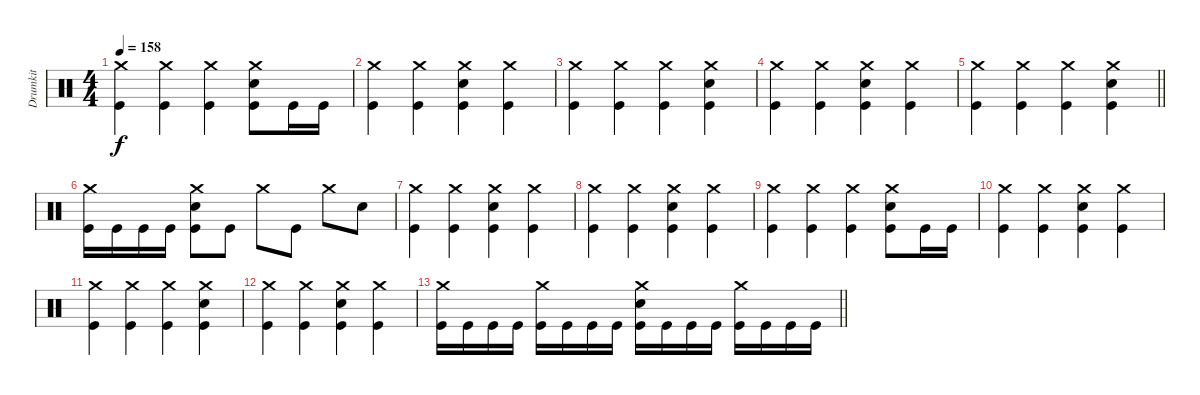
\track ("Drumkit" "Drumkit") {instrument percussion}
\staff {score}
\articulation defaults
\ts (4 4)
\tempo 158
\clef neutral
\ks c
("Crash medium (hit)" "Kick (hit)").4{dy f} ("Crash medium (hit)" "Kick (hit)").4 ("Crash medium (hit)" "Kick (hit)").4 ("Crash medium (hit)" "Snare (hit) 2" "Kick (hit)").8 "Kick (hit)".16 "Kick (hit)".16 |
("Crash medium (hit)" "Kick (hit)").4 ("Crash medium (hit)" "Kick (hit)").4 ("Crash medium (hit)" "Snare (hit) 2" "Kick (hit)").4 ("Crash medium (hit)" "Kick (hit)").4 |
("Crash medium (hit)" "Kick (hit)").4 ("Crash medium (hit)" "Kick (hit)").4 ("Crash medium (hit)" "Kick (hit)").4 ("Crash medium (hit)" "Snare (hit) 2" "Kick (hit)").4 |
("Crash medium (hit)" "Kick (hit)").4 ("Crash medium (hit)" "Kick (hit)").4 ("Crash medium (hit)" "Snare (hit) 2" "Kick (hit)").4 ("Crash medium (hit)" "Kick (hit)").4 |
\barLineRight lightlight
("Crash medium (hit)" "Kick (hit)").4 ("Crash medium (hit)" "Kick (hit)").4 ("Crash medium (hit)" "Kick (hit)").4 ("Crash medium (hit)" "Snare (hit) 2" "Kick (hit)").4 |
\section ("" "")
("Crash medium (hit)" "Kick (hit)").16 "Kick (hit)".16 "Kick (hit)".16 "Kick (hit)".16 ("Crash medium (hit)" "Snare (hit) 2" "Kick (hit)").8 "Kick (hit)".8 "Crash medium (hit)".8 "Kick (hit)".8 "Crash medium (hit)".8 "Snare (hit) 2".8 |
("Crash medium (hit)" "Kick (hit)").4 ("Crash medium (hit)" "Kick (hit)").4 ("Crash medium (hit)" "Snare (hit) 2" "Kick (hit)").4 ("Crash medium (hit)" "Kick (hit)").4 |
("Crash medium (hit)" "Kick (hit)").4 ("Crash medium (hit)" "Kick (hit)").4 ("Crash medium (hit)" "Snare (hit) 2" "Kick (hit)").4 ("Crash medium (hit)" "Kick (hit)").4 |
("Crash medium (hit)" "Kick (hit)").4 ("Crash medium (hit)" "Kick (hit)").4 ("Crash medium (hit)" "Kick (hit)").4 ("Crash medium (hit)" "Snare (hit) 2" "Kick (hit)").8 "Kick (hit)".16 "Kick (hit)".16 |
("Crash medium (hit)" "Kick (hit)").4 ("Crash medium (hit)" "Kick (hit)").4 ("Crash medium (hit)" "Snare (hit) 2" "Kick (hit)").4 ("Crash medium (hit)" "Kick (hit)").4 |
("Crash medium (hit)" "Kick (hit)").4 ("Crash medium (hit)" "Kick (hit)").4 ("Crash medium (hit)" "Kick (hit)").4 ("Crash medium (hit)" "Snare (hit) 2" "Kick (hit)").4 |
("Crash medium (hit)" "Kick (hit)").4 ("Crash medium (hit)" "Kick (hit)").4 ("Crash medium (hit)" "Snare (hit) 2" "Kick (hit)").4 ("Crash medium (hit)" "Kick (hit)").4 |
\barLineRight lightlight
("Crash medium (hit)" "Kick (hit)").16 "Kick (hit)".16 "Kick (hit)".16 "Kick (hit)".16 ("Crash medium (hit)" "Kick (hit)").16 "Kick (hit)".16 "Kick (hit)".16 "Kick (hit)".16 ("Crash medium (hit)" "Snare (hit) 2" "Kick (hit)").16 "Kick (hit)".16 "Kick (hit)".16 "Kick (hit)".16 ("Crash medium (hit)" "Kick (hit)").16 "Kick (hit)".16 "Kick (hit)".16 "Kick (hit)".16{volume 0}
